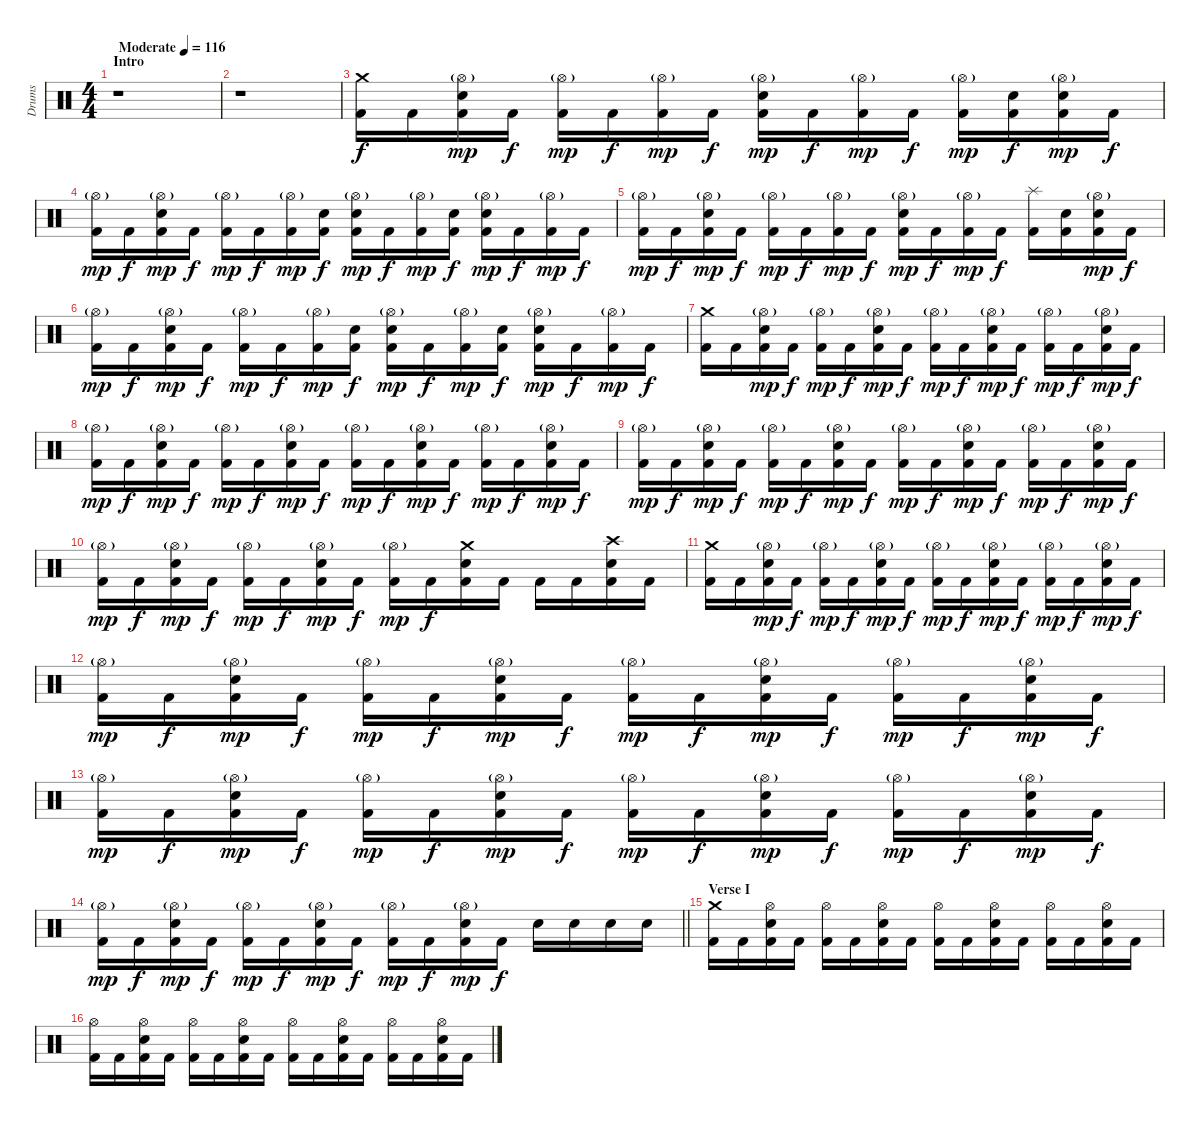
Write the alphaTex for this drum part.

\track ("Drums" "Drums") {instrument percussion}
\staff {score}
\articulation defaults
\ts (4 4)
\section ("" "Intro")
\tempo (116 "Moderate")
\clef neutral
\ks c
r.1{dy f} |
r.1 |
("Crash medium (hit)" "Kick (hit) 2").16 "Kick (hit) 2".16 ("Hi-Hat (open)"{g} "Kick (hit) 2" "Electric Snare (hit)").16{dy mp} "Kick (hit) 2".16{dy f} ("Hi-Hat (open)"{g} "Kick (hit) 2").16{dy mp} "Kick (hit) 2".16{dy f} ("Hi-Hat (open)"{g} "Kick (hit) 2").16{dy mp} "Kick (hit) 2".16{dy f} ("Hi-Hat (open)"{g} "Kick (hit) 2" "Electric Snare (hit)").16{dy mp} "Kick (hit) 2".16{dy f} ("Hi-Hat (open)"{g} "Kick (hit) 2").16{dy mp} "Kick (hit) 2".16{dy f} ("Hi-Hat (open)"{g} "Kick (hit) 2").16{dy mp} ("Kick (hit) 2" "Electric Snare (hit)").16{dy f} ("Hi-Hat (open)"{g} "Kick (hit) 2" "Electric Snare (hit)").16{dy mp} "Kick (hit) 2".16{dy f} |
("Hi-Hat (open)"{g} "Kick (hit) 2").16{dy mp} "Kick (hit) 2".16{dy f} ("Hi-Hat (open)"{g} "Kick (hit) 2" "Electric Snare (hit)").16{dy mp} "Kick (hit) 2".16{dy f} ("Hi-Hat (open)"{g} "Kick (hit) 2").16{dy mp} "Kick (hit) 2".16{dy f} ("Hi-Hat (open)"{g} "Kick (hit) 2").16{dy mp} ("Kick (hit) 2" "Electric Snare (hit)").16{dy f} ("Hi-Hat (open)"{g} "Kick (hit) 2" "Electric Snare (hit)").16{dy mp} "Kick (hit) 2".16{dy f} ("Hi-Hat (open)"{g} "Kick (hit) 2").16{dy mp} ("Kick (hit) 2" "Electric Snare (hit)").16{dy f} ("Hi-Hat (open)"{g} "Kick (hit) 2" "Electric Snare (hit)").16{dy mp} "Kick (hit) 2".16{dy f} ("Hi-Hat (open)"{g} "Kick (hit) 2").16{dy mp} "Kick (hit) 2".16{dy f} |
("Hi-Hat (open)"{g} "Kick (hit) 2").16{dy mp} "Kick (hit) 2".16{dy f} ("Hi-Hat (open)"{g} "Kick (hit) 2" "Electric Snare (hit)").16{dy mp} "Kick (hit) 2".16{dy f} ("Hi-Hat (open)"{g} "Kick (hit) 2").16{dy mp} "Kick (hit) 2".16{dy f} ("Hi-Hat (open)"{g} "Kick (hit) 2").16{dy mp} "Kick (hit) 2".16{dy f} ("Hi-Hat (open)"{g} "Kick (hit) 2" "Electric Snare (hit)").16{dy mp} "Kick (hit) 2".16{dy f} ("Hi-Hat (open)"{g} "Kick (hit) 2").16{dy mp} "Kick (hit) 2".16{dy f} ("Splash (hit)" "Kick (hit) 2").16 ("Kick (hit) 2" "Electric Snare (hit)").16 ("Hi-Hat (open)"{g} "Kick (hit) 2" "Electric Snare (hit)").16{dy mp} "Kick (hit) 2".16{dy f} |
("Hi-Hat (open)"{g} "Kick (hit) 2").16{dy mp} "Kick (hit) 2".16{dy f} ("Hi-Hat (open)"{g} "Kick (hit) 2" "Electric Snare (hit)").16{dy mp} "Kick (hit) 2".16{dy f} ("Hi-Hat (open)"{g} "Kick (hit) 2").16{dy mp} "Kick (hit) 2".16{dy f} ("Hi-Hat (open)"{g} "Kick (hit) 2").16{dy mp} ("Kick (hit) 2" "Electric Snare (hit)").16{dy f} ("Hi-Hat (open)"{g} "Kick (hit) 2" "Electric Snare (hit)").16{dy mp} "Kick (hit) 2".16{dy f} ("Hi-Hat (open)"{g} "Kick (hit) 2").16{dy mp} ("Kick (hit) 2" "Electric Snare (hit)").16{dy f} ("Hi-Hat (open)"{g} "Kick (hit) 2" "Electric Snare (hit)").16{dy mp} "Kick (hit) 2".16{dy f} ("Hi-Hat (open)"{g} "Kick (hit) 2").16{dy mp} "Kick (hit) 2".16{dy f} |
("Crash medium (hit)" "Kick (hit) 2").16 "Kick (hit) 2".16 ("Hi-Hat (open)"{g} "Kick (hit) 2" "Electric Snare (hit)").16{dy mp} "Kick (hit) 2".16{dy f} ("Hi-Hat (open)"{g} "Kick (hit) 2").16{dy mp} "Kick (hit) 2".16{dy f} ("Hi-Hat (open)"{g} "Kick (hit) 2" "Electric Snare (hit)").16{dy mp} "Kick (hit) 2".16{dy f} ("Hi-Hat (open)"{g} "Kick (hit) 2").16{dy mp} "Kick (hit) 2".16{dy f} ("Hi-Hat (open)"{g} "Kick (hit) 2" "Electric Snare (hit)").16{dy mp} "Kick (hit) 2".16{dy f} ("Hi-Hat (open)"{g} "Kick (hit) 2").16{dy mp} "Kick (hit) 2".16{dy f} ("Hi-Hat (open)"{g} "Kick (hit) 2" "Electric Snare (hit)").16{dy mp} "Kick (hit) 2".16{dy f} |
("Hi-Hat (open)"{g} "Kick (hit) 2").16{dy mp} "Kick (hit) 2".16{dy f} ("Hi-Hat (open)"{g} "Kick (hit) 2" "Electric Snare (hit)").16{dy mp} "Kick (hit) 2".16{dy f} ("Hi-Hat (open)"{g} "Kick (hit) 2").16{dy mp} "Kick (hit) 2".16{dy f} ("Hi-Hat (open)"{g} "Kick (hit) 2" "Electric Snare (hit)").16{dy mp} "Kick (hit) 2".16{dy f} ("Hi-Hat (open)"{g} "Kick (hit) 2").16{dy mp} "Kick (hit) 2".16{dy f} ("Hi-Hat (open)"{g} "Kick (hit) 2" "Electric Snare (hit)").16{dy mp} "Kick (hit) 2".16{dy f} ("Hi-Hat (open)"{g} "Kick (hit) 2").16{dy mp} "Kick (hit) 2".16{dy f} ("Hi-Hat (open)"{g} "Kick (hit) 2" "Electric Snare (hit)").16{dy mp} "Kick (hit) 2".16{dy f} |
("Hi-Hat (open)"{g} "Kick (hit) 2").16{dy mp} "Kick (hit) 2".16{dy f} ("Hi-Hat (open)"{g} "Kick (hit) 2" "Electric Snare (hit)").16{dy mp} "Kick (hit) 2".16{dy f} ("Hi-Hat (open)"{g} "Kick (hit) 2").16{dy mp} "Kick (hit) 2".16{dy f} ("Hi-Hat (open)"{g} "Kick (hit) 2" "Electric Snare (hit)").16{dy mp} "Kick (hit) 2".16{dy f} ("Hi-Hat (open)"{g} "Kick (hit) 2").16{dy mp} "Kick (hit) 2".16{dy f} ("Hi-Hat (open)"{g} "Kick (hit) 2" "Electric Snare (hit)").16{dy mp} "Kick (hit) 2".16{dy f} ("Hi-Hat (open)"{g} "Kick (hit) 2").16{dy mp} "Kick (hit) 2".16{dy f} ("Hi-Hat (open)"{g} "Kick (hit) 2" "Electric Snare (hit)").16{dy mp} "Kick (hit) 2".16{dy f} |
("Hi-Hat (open)"{g} "Kick (hit) 2").16{dy mp} "Kick (hit) 2".16{dy f} ("Hi-Hat (open)"{g} "Kick (hit) 2" "Electric Snare (hit)").16{dy mp} "Kick (hit) 2".16{dy f} ("Hi-Hat (open)"{g} "Kick (hit) 2").16{dy mp} "Kick (hit) 2".16{dy f} ("Hi-Hat (open)"{g} "Kick (hit) 2" "Electric Snare (hit)").16{dy mp} "Kick (hit) 2".16{dy f} ("Hi-Hat (open)"{g} "Kick (hit) 2").16{dy mp} "Kick (hit) 2".16{dy f} ("Crash medium (hit)" "Kick (hit) 2" "Electric Snare (hit)").16 "Kick (hit) 2".16 "Kick (hit) 2".16 "Kick (hit) 2".16 ("Crash high (hit)" "Kick (hit) 2" "Electric Snare (hit)").16 "Kick (hit) 2".16 |
("Crash medium (hit)" "Kick (hit) 2").16 "Kick (hit) 2".16 ("Hi-Hat (open)"{g} "Kick (hit) 2" "Electric Snare (hit)").16{dy mp} "Kick (hit) 2".16{dy f} ("Hi-Hat (open)"{g} "Kick (hit) 2").16{dy mp} "Kick (hit) 2".16{dy f} ("Hi-Hat (open)"{g} "Kick (hit) 2" "Electric Snare (hit)").16{dy mp} "Kick (hit) 2".16{dy f} ("Hi-Hat (open)"{g} "Kick (hit) 2").16{dy mp} "Kick (hit) 2".16{dy f} ("Hi-Hat (open)"{g} "Kick (hit) 2" "Electric Snare (hit)").16{dy mp} "Kick (hit) 2".16{dy f} ("Hi-Hat (open)"{g} "Kick (hit) 2").16{dy mp} "Kick (hit) 2".16{dy f} ("Hi-Hat (open)"{g} "Kick (hit) 2" "Electric Snare (hit)").16{dy mp} "Kick (hit) 2".16{dy f} |
("Hi-Hat (open)"{g} "Kick (hit) 2").16{dy mp} "Kick (hit) 2".16{dy f} ("Hi-Hat (open)"{g} "Kick (hit) 2" "Electric Snare (hit)").16{dy mp} "Kick (hit) 2".16{dy f} ("Hi-Hat (open)"{g} "Kick (hit) 2").16{dy mp} "Kick (hit) 2".16{dy f} ("Hi-Hat (open)"{g} "Kick (hit) 2" "Electric Snare (hit)").16{dy mp} "Kick (hit) 2".16{dy f} ("Hi-Hat (open)"{g} "Kick (hit) 2").16{dy mp} "Kick (hit) 2".16{dy f} ("Hi-Hat (open)"{g} "Kick (hit) 2" "Electric Snare (hit)").16{dy mp} "Kick (hit) 2".16{dy f} ("Hi-Hat (open)"{g} "Kick (hit) 2").16{dy mp} "Kick (hit) 2".16{dy f} ("Hi-Hat (open)"{g} "Kick (hit) 2" "Electric Snare (hit)").16{dy mp} "Kick (hit) 2".16{dy f} |
("Hi-Hat (open)"{g} "Kick (hit) 2").16{dy mp} "Kick (hit) 2".16{dy f} ("Hi-Hat (open)"{g} "Kick (hit) 2" "Electric Snare (hit)").16{dy mp} "Kick (hit) 2".16{dy f} ("Hi-Hat (open)"{g} "Kick (hit) 2").16{dy mp} "Kick (hit) 2".16{dy f} ("Hi-Hat (open)"{g} "Kick (hit) 2" "Electric Snare (hit)").16{dy mp} "Kick (hit) 2".16{dy f} ("Hi-Hat (open)"{g} "Kick (hit) 2").16{dy mp} "Kick (hit) 2".16{dy f} ("Hi-Hat (open)"{g} "Kick (hit) 2" "Electric Snare (hit)").16{dy mp} "Kick (hit) 2".16{dy f} ("Hi-Hat (open)"{g} "Kick (hit) 2").16{dy mp} "Kick (hit) 2".16{dy f} ("Hi-Hat (open)"{g} "Kick (hit) 2" "Electric Snare (hit)").16{dy mp} "Kick (hit) 2".16{dy f} |
\barLineRight lightlight
("Hi-Hat (open)"{g} "Kick (hit) 2").16{dy mp} "Kick (hit) 2".16{dy f} ("Hi-Hat (open)"{g} "Kick (hit) 2" "Electric Snare (hit)").16{dy mp} "Kick (hit) 2".16{dy f} ("Hi-Hat (open)"{g} "Kick (hit) 2").16{dy mp} "Kick (hit) 2".16{dy f} ("Hi-Hat (open)"{g} "Kick (hit) 2" "Electric Snare (hit)").16{dy mp} "Kick (hit) 2".16{dy f} ("Hi-Hat (open)"{g} "Kick (hit) 2").16{dy mp} "Kick (hit) 2".16{dy f} ("Hi-Hat (open)"{g} "Kick (hit) 2" "Electric Snare (hit)").16{dy mp} "Kick (hit) 2".16{dy f} "Electric Snare (hit)".16 "Electric Snare (hit)".16 "Electric Snare (hit)".16 "Electric Snare (hit)".16 |
\section ("" "Verse I")
("Crash medium (hit)" "Kick (hit) 2").16 "Kick (hit) 2".16 ("Hi-Hat (open)" "Kick (hit) 2" "Electric Snare (hit)").16 "Kick (hit) 2".16 ("Hi-Hat (open)" "Kick (hit) 2").16 "Kick (hit) 2".16 ("Hi-Hat (open)" "Kick (hit) 2" "Electric Snare (hit)").16 "Kick (hit) 2".16 ("Hi-Hat (open)" "Kick (hit) 2").16 "Kick (hit) 2".16 ("Hi-Hat (open)" "Kick (hit) 2" "Electric Snare (hit)").16 "Kick (hit) 2".16 ("Hi-Hat (open)" "Kick (hit) 2").16 "Kick (hit) 2".16 ("Hi-Hat (open)" "Kick (hit) 2" "Electric Snare (hit)").16 "Kick (hit) 2".16 |
("Hi-Hat (open)" "Kick (hit) 2").16 "Kick (hit) 2".16 ("Hi-Hat (open)" "Kick (hit) 2" "Electric Snare (hit)").16 "Kick (hit) 2".16 ("Hi-Hat (open)" "Kick (hit) 2").16 "Kick (hit) 2".16 ("Hi-Hat (open)" "Kick (hit) 2" "Electric Snare (hit)").16 "Kick (hit) 2".16 ("Hi-Hat (open)" "Kick (hit) 2").16 "Kick (hit) 2".16 ("Hi-Hat (open)" "Kick (hit) 2" "Electric Snare (hit)").16 "Kick (hit) 2".16 ("Hi-Hat (open)" "Kick (hit) 2").16 "Kick (hit) 2".16 ("Hi-Hat (open)" "Kick (hit) 2" "Electric Snare (hit)").16 "Kick (hit) 2".16
